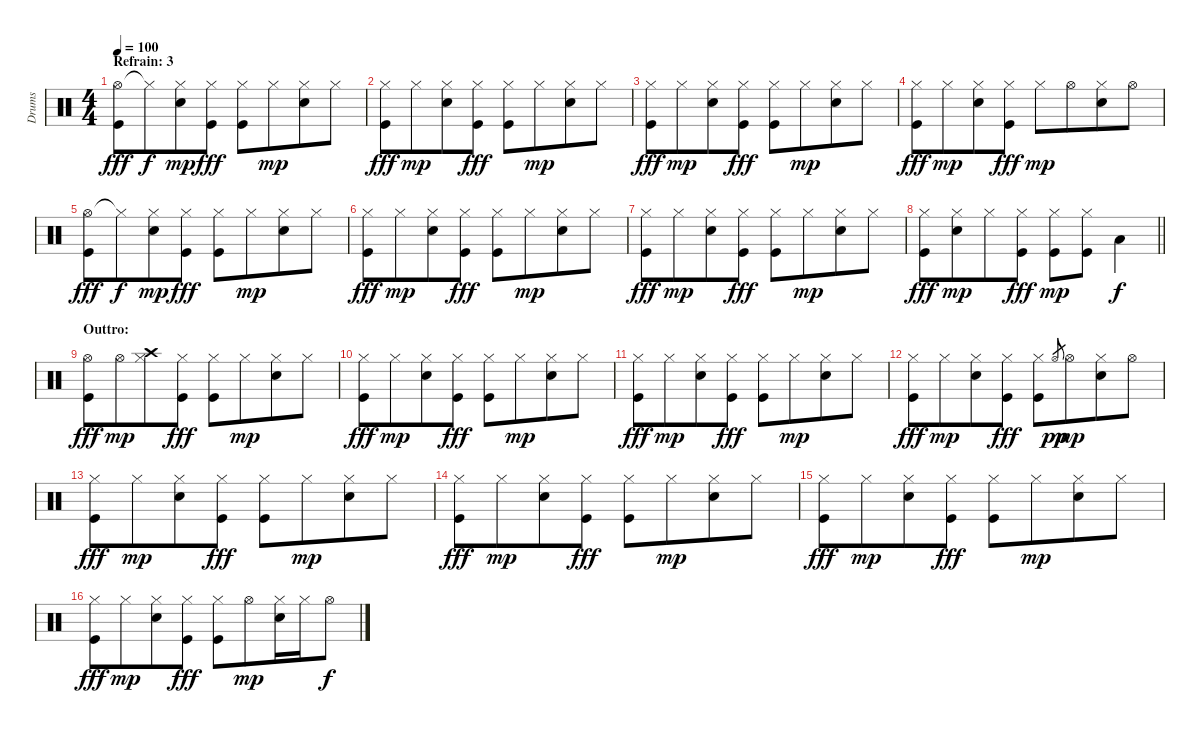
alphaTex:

\track ("Drums" "Drums") {instrument percussion}
\staff {score}
\articulation defaults
\ts (4 4)
\section ("" "Refrain: 3")
\tempo 100
\clef neutral
\ks c
("Hi-Hat (open)" "Kick (hit)").8{dy fff} "Hi-Hat (closed)"{t}.8{dy f beam merge} ("Hi-Hat (closed)" "Snare (hit) 2").8{dy mp} ("Hi-Hat (closed)" "Kick (hit)").8{dy fff} ("Hi-Hat (closed)" "Kick (hit)").8 "Hi-Hat (closed)".8{dy mp beam merge} ("Hi-Hat (closed)" "Snare (hit) 2").8 "Hi-Hat (closed)".8 |
("Hi-Hat (closed)" "Kick (hit)").8{dy fff} "Hi-Hat (closed)".8{dy mp beam merge} ("Hi-Hat (closed)" "Snare (hit) 2").8 ("Hi-Hat (closed)" "Kick (hit)").8{dy fff} ("Hi-Hat (closed)" "Kick (hit)").8 "Hi-Hat (closed)".8{dy mp beam merge} ("Hi-Hat (closed)" "Snare (hit) 2").8 "Hi-Hat (closed)".8 |
("Hi-Hat (closed)" "Kick (hit)").8{dy fff} "Hi-Hat (closed)".8{dy mp beam merge} ("Hi-Hat (closed)" "Snare (hit) 2").8 ("Hi-Hat (closed)" "Kick (hit)").8{dy fff} ("Hi-Hat (closed)" "Kick (hit)").8 "Hi-Hat (closed)".8{dy mp beam merge} ("Hi-Hat (closed)" "Snare (hit) 2").8 "Hi-Hat (closed)".8 |
("Hi-Hat (closed)" "Kick (hit)").8{dy fff} "Hi-Hat (closed)".8{dy mp beam merge} ("Hi-Hat (closed)" "Snare (hit) 2").8 ("Hi-Hat (closed)" "Kick (hit)").8{dy fff} "Hi-Hat (closed)".8{dy mp} "Hi-Hat (open)".8{beam merge} ("Hi-Hat (closed)" "Snare (hit) 2").8 "Hi-Hat (open)".8 |
("Hi-Hat (open)" "Kick (hit)").8{dy fff} "Hi-Hat (closed)"{t}.8{dy f beam merge} ("Hi-Hat (closed)" "Snare (hit) 2").8{dy mp} ("Hi-Hat (closed)" "Kick (hit)").8{dy fff} ("Hi-Hat (closed)" "Kick (hit)").8 "Hi-Hat (closed)".8{dy mp beam merge} ("Hi-Hat (closed)" "Snare (hit) 2").8 "Hi-Hat (closed)".8 |
("Hi-Hat (closed)" "Kick (hit)").8{dy fff} "Hi-Hat (closed)".8{dy mp beam merge} ("Hi-Hat (closed)" "Snare (hit) 2").8 ("Hi-Hat (closed)" "Kick (hit)").8{dy fff} ("Hi-Hat (closed)" "Kick (hit)").8 "Hi-Hat (closed)".8{dy mp beam merge} ("Hi-Hat (closed)" "Snare (hit) 2").8 "Hi-Hat (closed)".8 |
("Hi-Hat (closed)" "Kick (hit)").8{dy fff} "Hi-Hat (closed)".8{dy mp beam merge} ("Hi-Hat (closed)" "Snare (hit) 2").8 ("Hi-Hat (closed)" "Kick (hit)").8{dy fff} ("Hi-Hat (closed)" "Kick (hit)").8 "Hi-Hat (closed)".8{dy mp beam merge} ("Hi-Hat (closed)" "Snare (hit) 2").8 "Hi-Hat (closed)".8 |
\barLineRight lightlight
("Hi-Hat (closed)" "Kick (hit)").8{dy fff} ("Hi-Hat (closed)" "Snare (hit) 2").8{dy mp beam merge} "Hi-Hat (closed)".8 ("Hi-Hat (closed)" "Kick (hit)").8{dy fff} ("Hi-Hat (closed)" "Kick (hit)").8{dy mp} ("Hi-Hat (closed)" "Kick (hit)").8{beam merge} "Low Floor Tom (hit)".4{dy f} |
\section ("" "Outtro:")
("Hi-Hat (open)" "Kick (hit)").8{dy fff} "Hi-Hat (open)".8{dy mp beam merge} ("Hi-Hat (closed)" "Crash high (hit)").8 ("Hi-Hat (closed)" "Kick (hit)").8{dy fff} ("Hi-Hat (closed)" "Kick (hit)").8 "Hi-Hat (closed)".8{dy mp beam merge} ("Hi-Hat (closed)" "Snare (hit) 2").8 "Hi-Hat (closed)".8 |
("Hi-Hat (closed)" "Kick (hit)").8{dy fff} "Hi-Hat (closed)".8{dy mp beam merge} ("Hi-Hat (closed)" "Snare (hit) 2").8 ("Hi-Hat (closed)" "Kick (hit)").8{dy fff} ("Hi-Hat (closed)" "Kick (hit)").8 "Hi-Hat (closed)".8{dy mp beam merge} ("Hi-Hat (closed)" "Snare (hit) 2").8 "Hi-Hat (closed)".8 |
("Hi-Hat (closed)" "Kick (hit)").8{dy fff} "Hi-Hat (closed)".8{dy mp beam merge} ("Hi-Hat (closed)" "Snare (hit) 2").8 ("Hi-Hat (closed)" "Kick (hit)").8{dy fff} ("Hi-Hat (closed)" "Kick (hit)").8 "Hi-Hat (closed)".8{dy mp beam merge} ("Hi-Hat (closed)" "Snare (hit) 2").8 "Hi-Hat (closed)".8 |
("Hi-Hat (closed)" "Kick (hit)").8{dy fff} "Hi-Hat (closed)".8{dy mp beam merge} ("Hi-Hat (closed)" "Snare (hit) 2").8 ("Hi-Hat (closed)" "Kick (hit)").8{dy fff} ("Hi-Hat (closed)" "Kick (hit)").8 "Hi-Hat (open)"{x}.8{gr dy pp} "Hi-Hat (open)".8{dy mp beam merge} ("Hi-Hat (closed)" "Snare (hit) 2").8 "Hi-Hat (open)".8 |
("Hi-Hat (closed)" "Kick (hit)").8{dy fff} "Hi-Hat (closed)".8{dy mp beam merge} ("Hi-Hat (closed)" "Snare (hit) 2").8 ("Hi-Hat (closed)" "Kick (hit)").8{dy fff} ("Hi-Hat (closed)" "Kick (hit)").8 "Hi-Hat (closed)".8{dy mp beam merge} ("Hi-Hat (closed)" "Snare (hit) 2").8 "Hi-Hat (closed)".8 |
("Hi-Hat (closed)" "Kick (hit)").8{dy fff} "Hi-Hat (closed)".8{dy mp beam merge} ("Hi-Hat (closed)" "Snare (hit) 2").8 ("Hi-Hat (closed)" "Kick (hit)").8{dy fff} ("Hi-Hat (closed)" "Kick (hit)").8 "Hi-Hat (closed)".8{dy mp beam merge} ("Hi-Hat (closed)" "Snare (hit) 2").8 "Hi-Hat (closed)".8 |
("Hi-Hat (closed)" "Kick (hit)").8{dy fff} "Hi-Hat (closed)".8{dy mp beam merge} ("Hi-Hat (closed)" "Snare (hit) 2").8 ("Hi-Hat (closed)" "Kick (hit)").8{dy fff} ("Hi-Hat (closed)" "Kick (hit)").8 "Hi-Hat (closed)".8{dy mp beam merge} ("Hi-Hat (closed)" "Snare (hit) 2").8 "Hi-Hat (closed)".8 |
("Hi-Hat (closed)" "Kick (hit)").8{dy fff} "Hi-Hat (closed)".8{dy mp beam merge} ("Hi-Hat (closed)" "Snare (hit) 2").8 ("Hi-Hat (closed)" "Kick (hit)").8{dy fff} ("Hi-Hat (closed)" "Kick (hit)").8 "Hi-Hat (open)".8{dy mp beam merge} ("Hi-Hat (closed)" "Snare (hit) 2").16 "Hi-Hat (closed)".16 "Hi-Hat (open)".8{dy f}
